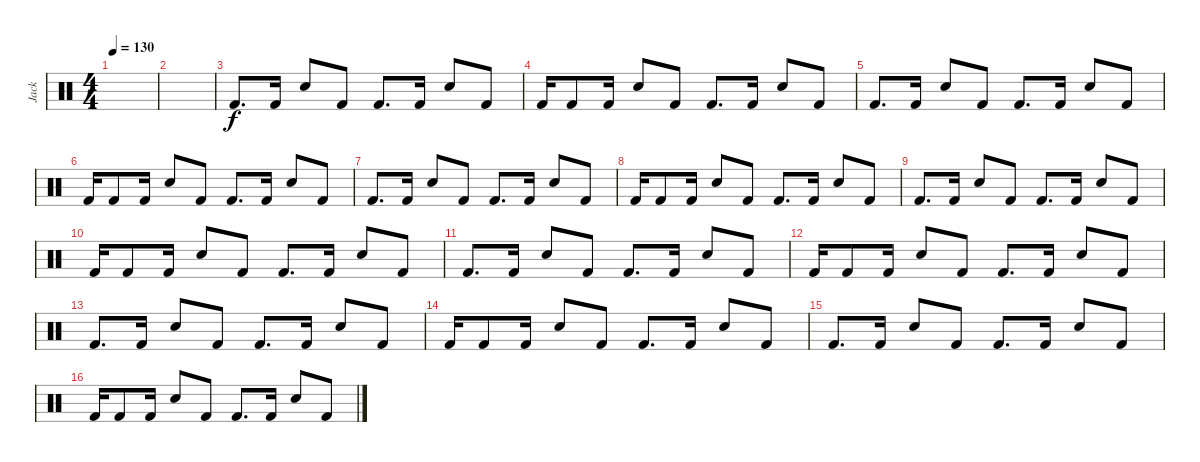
\track ("Jack" "Jack") {instrument percussion}
\staff {score}
\articulation defaults
\ts (4 4)
\tempo 130
\clef neutral
\ks c
|
|
"Kick (hit) 2".8{d} "Kick (hit) 2".16 "Snare (hit) 2".8 "Kick (hit) 2".8 "Kick (hit) 2".8{d} "Kick (hit) 2".16 "Snare (hit) 2".8 "Kick (hit) 2".8 |
"Kick (hit) 2".16 "Kick (hit) 2".8 "Kick (hit) 2".16 "Snare (hit) 2".8 "Kick (hit) 2".8 "Kick (hit) 2".8{d} "Kick (hit) 2".16 "Snare (hit) 2".8 "Kick (hit) 2".8 |
"Kick (hit) 2".8{d} "Kick (hit) 2".16 "Snare (hit) 2".8 "Kick (hit) 2".8 "Kick (hit) 2".8{d} "Kick (hit) 2".16 "Snare (hit) 2".8 "Kick (hit) 2".8 |
"Kick (hit) 2".16 "Kick (hit) 2".8 "Kick (hit) 2".16 "Snare (hit) 2".8 "Kick (hit) 2".8 "Kick (hit) 2".8{d} "Kick (hit) 2".16 "Snare (hit) 2".8 "Kick (hit) 2".8 |
"Kick (hit) 2".8{d} "Kick (hit) 2".16 "Snare (hit) 2".8 "Kick (hit) 2".8 "Kick (hit) 2".8{d} "Kick (hit) 2".16 "Snare (hit) 2".8 "Kick (hit) 2".8 |
"Kick (hit) 2".16 "Kick (hit) 2".8 "Kick (hit) 2".16 "Snare (hit) 2".8 "Kick (hit) 2".8 "Kick (hit) 2".8{d} "Kick (hit) 2".16 "Snare (hit) 2".8 "Kick (hit) 2".8 |
"Kick (hit) 2".8{d} "Kick (hit) 2".16 "Snare (hit) 2".8 "Kick (hit) 2".8 "Kick (hit) 2".8{d} "Kick (hit) 2".16 "Snare (hit) 2".8 "Kick (hit) 2".8 |
"Kick (hit) 2".16 "Kick (hit) 2".8 "Kick (hit) 2".16 "Snare (hit) 2".8 "Kick (hit) 2".8 "Kick (hit) 2".8{d} "Kick (hit) 2".16 "Snare (hit) 2".8 "Kick (hit) 2".8 |
"Kick (hit) 2".8{d} "Kick (hit) 2".16 "Snare (hit) 2".8 "Kick (hit) 2".8 "Kick (hit) 2".8{d} "Kick (hit) 2".16 "Snare (hit) 2".8 "Kick (hit) 2".8 |
"Kick (hit) 2".16 "Kick (hit) 2".8 "Kick (hit) 2".16 "Snare (hit) 2".8 "Kick (hit) 2".8 "Kick (hit) 2".8{d} "Kick (hit) 2".16 "Snare (hit) 2".8 "Kick (hit) 2".8 |
"Kick (hit) 2".8{d} "Kick (hit) 2".16 "Snare (hit) 2".8 "Kick (hit) 2".8 "Kick (hit) 2".8{d} "Kick (hit) 2".16 "Snare (hit) 2".8 "Kick (hit) 2".8 |
"Kick (hit) 2".16 "Kick (hit) 2".8 "Kick (hit) 2".16 "Snare (hit) 2".8 "Kick (hit) 2".8 "Kick (hit) 2".8{d} "Kick (hit) 2".16 "Snare (hit) 2".8 "Kick (hit) 2".8 |
"Kick (hit) 2".8{d} "Kick (hit) 2".16 "Snare (hit) 2".8 "Kick (hit) 2".8 "Kick (hit) 2".8{d} "Kick (hit) 2".16 "Snare (hit) 2".8 "Kick (hit) 2".8 |
"Kick (hit) 2".16 "Kick (hit) 2".8 "Kick (hit) 2".16 "Snare (hit) 2".8 "Kick (hit) 2".8 "Kick (hit) 2".8{d} "Kick (hit) 2".16 "Snare (hit) 2".8 "Kick (hit) 2".8
